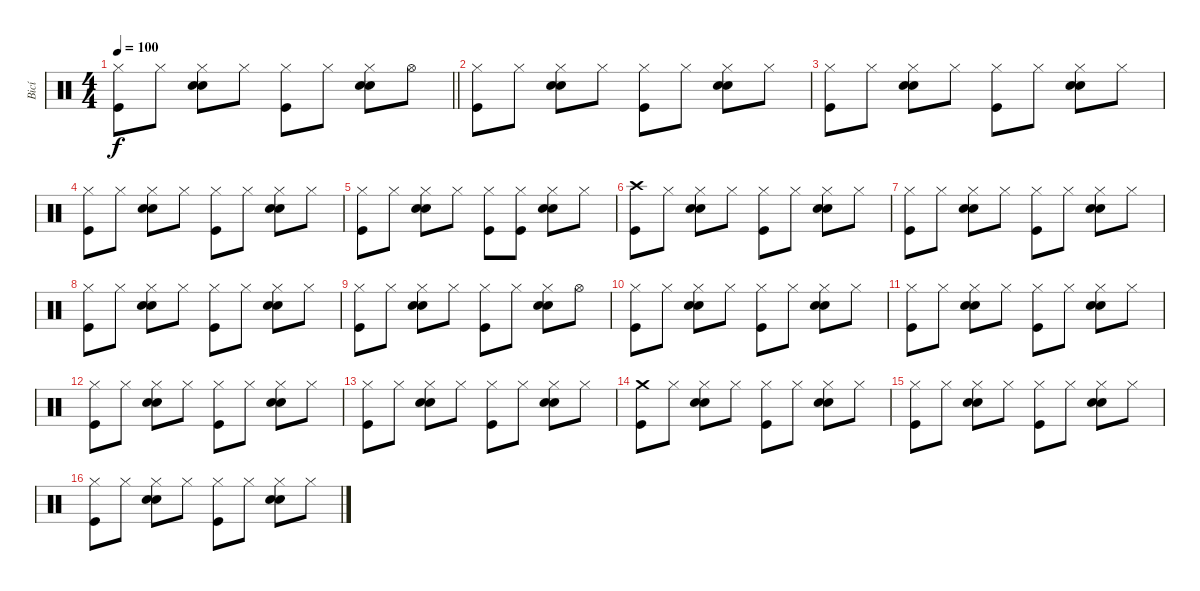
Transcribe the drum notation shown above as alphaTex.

\track ("Bicí" "Bicí") {instrument percussion}
\staff {score}
\articulation defaults
\ts (4 4)
\tempo 100
\clef neutral
\barLineRight lightlight
\ks c
("Hi-Hat (closed)" "Kick (hit)").8{dy f} "Hi-Hat (closed)".8 ("Hi-Hat (closed)" "Hand Clap (hit)" "Electric Snare (hit)").8 "Hi-Hat (closed)".8 ("Hi-Hat (closed)" "Kick (hit)").8 "Hi-Hat (closed)".8 ("Hi-Hat (closed)" "Hand Clap (hit)" "Electric Snare (hit)").8 "Hi-Hat (open)".8 |
\section ("" "")
("Hi-Hat (closed)" "Kick (hit)").8 "Hi-Hat (closed)".8 ("Hi-Hat (closed)" "Hand Clap (hit)" "Electric Snare (hit)").8 "Hi-Hat (closed)".8 ("Hi-Hat (closed)" "Kick (hit)").8 "Hi-Hat (closed)".8 ("Hi-Hat (closed)" "Hand Clap (hit)" "Electric Snare (hit)").8 "Hi-Hat (closed)".8 |
("Hi-Hat (closed)" "Kick (hit)").8 "Hi-Hat (closed)".8 ("Hi-Hat (closed)" "Hand Clap (hit)" "Electric Snare (hit)").8 "Hi-Hat (closed)".8 ("Hi-Hat (closed)" "Kick (hit)").8 "Hi-Hat (closed)".8 ("Hi-Hat (closed)" "Hand Clap (hit)" "Electric Snare (hit)").8 "Hi-Hat (closed)".8 |
("Hi-Hat (closed)" "Kick (hit)").8 "Hi-Hat (closed)".8 ("Hi-Hat (closed)" "Hand Clap (hit)" "Electric Snare (hit)").8 "Hi-Hat (closed)".8 ("Hi-Hat (closed)" "Kick (hit)").8 "Hi-Hat (closed)".8 ("Hi-Hat (closed)" "Hand Clap (hit)" "Electric Snare (hit)").8 "Hi-Hat (closed)".8 |
("Hi-Hat (closed)" "Kick (hit)").8 "Hi-Hat (closed)".8 ("Hi-Hat (closed)" "Hand Clap (hit)" "Electric Snare (hit)").8 "Hi-Hat (closed)".8 ("Hi-Hat (closed)" "Kick (hit)").8 ("Hi-Hat (closed)" "Kick (hit)").8 ("Hi-Hat (closed)" "Hand Clap (hit)" "Electric Snare (hit)").8 "Hi-Hat (closed)".8 |
("Crash high (hit)" "Kick (hit)").8 "Hi-Hat (closed)".8 ("Hi-Hat (closed)" "Hand Clap (hit)" "Electric Snare (hit)").8 "Hi-Hat (closed)".8 ("Hi-Hat (closed)" "Kick (hit)").8 "Hi-Hat (closed)".8 ("Hi-Hat (closed)" "Hand Clap (hit)" "Electric Snare (hit)").8 "Hi-Hat (closed)".8 |
("Hi-Hat (closed)" "Kick (hit)").8 "Hi-Hat (closed)".8 ("Hi-Hat (closed)" "Hand Clap (hit)" "Electric Snare (hit)").8 "Hi-Hat (closed)".8 ("Hi-Hat (closed)" "Kick (hit)").8 "Hi-Hat (closed)".8 ("Hi-Hat (closed)" "Hand Clap (hit)" "Electric Snare (hit)").8 "Hi-Hat (closed)".8 |
("Hi-Hat (closed)" "Kick (hit)").8 "Hi-Hat (closed)".8 ("Hi-Hat (closed)" "Hand Clap (hit)" "Electric Snare (hit)").8 "Hi-Hat (closed)".8 ("Hi-Hat (closed)" "Kick (hit)").8 "Hi-Hat (closed)".8 ("Hi-Hat (closed)" "Hand Clap (hit)" "Electric Snare (hit)").8 "Hi-Hat (closed)".8 |
("Hi-Hat (closed)" "Kick (hit)").8 "Hi-Hat (closed)".8 ("Hi-Hat (closed)" "Hand Clap (hit)" "Electric Snare (hit)").8 "Hi-Hat (closed)".8 ("Hi-Hat (closed)" "Kick (hit)").8 "Hi-Hat (closed)".8 ("Hi-Hat (closed)" "Hand Clap (hit)" "Electric Snare (hit)").8 "Hi-Hat (open)".8 |
("Hi-Hat (closed)" "Kick (hit)").8 "Hi-Hat (closed)".8 ("Hi-Hat (closed)" "Hand Clap (hit)" "Electric Snare (hit)").8 "Hi-Hat (closed)".8 ("Hi-Hat (closed)" "Kick (hit)").8 "Hi-Hat (closed)".8 ("Hi-Hat (closed)" "Hand Clap (hit)" "Electric Snare (hit)").8 "Hi-Hat (closed)".8 |
("Hi-Hat (closed)" "Kick (hit)").8 "Hi-Hat (closed)".8 ("Hi-Hat (closed)" "Hand Clap (hit)" "Electric Snare (hit)").8 "Hi-Hat (closed)".8 ("Hi-Hat (closed)" "Kick (hit)").8 "Hi-Hat (closed)".8 ("Hi-Hat (closed)" "Hand Clap (hit)" "Electric Snare (hit)").8 "Hi-Hat (closed)".8 |
("Hi-Hat (closed)" "Kick (hit)").8 "Hi-Hat (closed)".8 ("Hi-Hat (closed)" "Hand Clap (hit)" "Electric Snare (hit)").8 "Hi-Hat (closed)".8 ("Hi-Hat (closed)" "Kick (hit)").8 "Hi-Hat (closed)".8 ("Hi-Hat (closed)" "Hand Clap (hit)" "Electric Snare (hit)").8 "Hi-Hat (closed)".8 |
("Hi-Hat (closed)" "Kick (hit)").8 "Hi-Hat (closed)".8 ("Hi-Hat (closed)" "Hand Clap (hit)" "Electric Snare (hit)").8 "Hi-Hat (closed)".8 ("Hi-Hat (closed)" "Kick (hit)").8 "Hi-Hat (closed)".8 ("Hi-Hat (closed)" "Hand Clap (hit)" "Electric Snare (hit)").8 "Hi-Hat (closed)".8 |
("Crash medium (hit)" "Kick (hit)").8 "Hi-Hat (closed)".8 ("Hi-Hat (closed)" "Hand Clap (hit)" "Electric Snare (hit)").8 "Hi-Hat (closed)".8 ("Hi-Hat (closed)" "Kick (hit)").8 "Hi-Hat (closed)".8 ("Hi-Hat (closed)" "Hand Clap (hit)" "Electric Snare (hit)").8 "Hi-Hat (closed)".8 |
("Hi-Hat (closed)" "Kick (hit)").8 "Hi-Hat (closed)".8 ("Hi-Hat (closed)" "Hand Clap (hit)" "Electric Snare (hit)").8 "Hi-Hat (closed)".8 ("Hi-Hat (closed)" "Kick (hit)").8 "Hi-Hat (closed)".8 ("Hi-Hat (closed)" "Hand Clap (hit)" "Electric Snare (hit)").8 "Hi-Hat (closed)".8 |
("Hi-Hat (closed)" "Kick (hit)").8 "Hi-Hat (closed)".8 ("Hi-Hat (closed)" "Hand Clap (hit)" "Electric Snare (hit)").8 "Hi-Hat (closed)".8 ("Hi-Hat (closed)" "Kick (hit)").8 "Hi-Hat (closed)".8 ("Hi-Hat (closed)" "Hand Clap (hit)" "Electric Snare (hit)").8 "Hi-Hat (closed)".8
